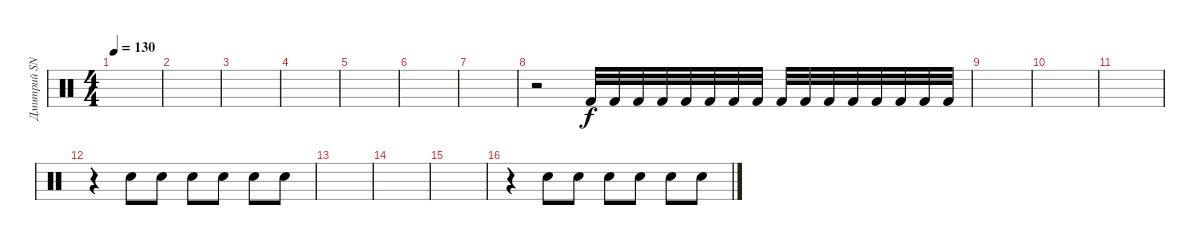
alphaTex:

\track ("Дмитрий SNAKE Хакимов (drum-machine)" "Дмитрий SN") {instrument percussion}
\staff {score}
\articulation defaults
\ts (4 4)
\tempo 130
\clef neutral
\ks c
|
|
|
|
|
|
|
r.2 "Kick (hit) 2".32 "Kick (hit) 2".32 "Kick (hit) 2".32 "Kick (hit) 2".32 "Kick (hit) 2".32 "Kick (hit) 2".32 "Kick (hit) 2".32 "Kick (hit) 2".32 "Kick (hit) 2".32 "Kick (hit) 2".32 "Kick (hit) 2".32 "Kick (hit) 2".32 "Kick (hit) 2".32 "Kick (hit) 2".32 "Kick (hit) 2".32 "Kick (hit) 2".32 |
|
|
|
r.4 "Electric Snare (hit)".8 "Electric Snare (hit)".8 "Electric Snare (hit)".8 "Electric Snare (hit)".8 "Electric Snare (hit)".8 "Electric Snare (hit)".8 |
|
|
|
r.4 "Electric Snare (hit)".8 "Electric Snare (hit)".8 "Electric Snare (hit)".8 "Electric Snare (hit)".8 "Electric Snare (hit)".8 "Electric Snare (hit)".8
